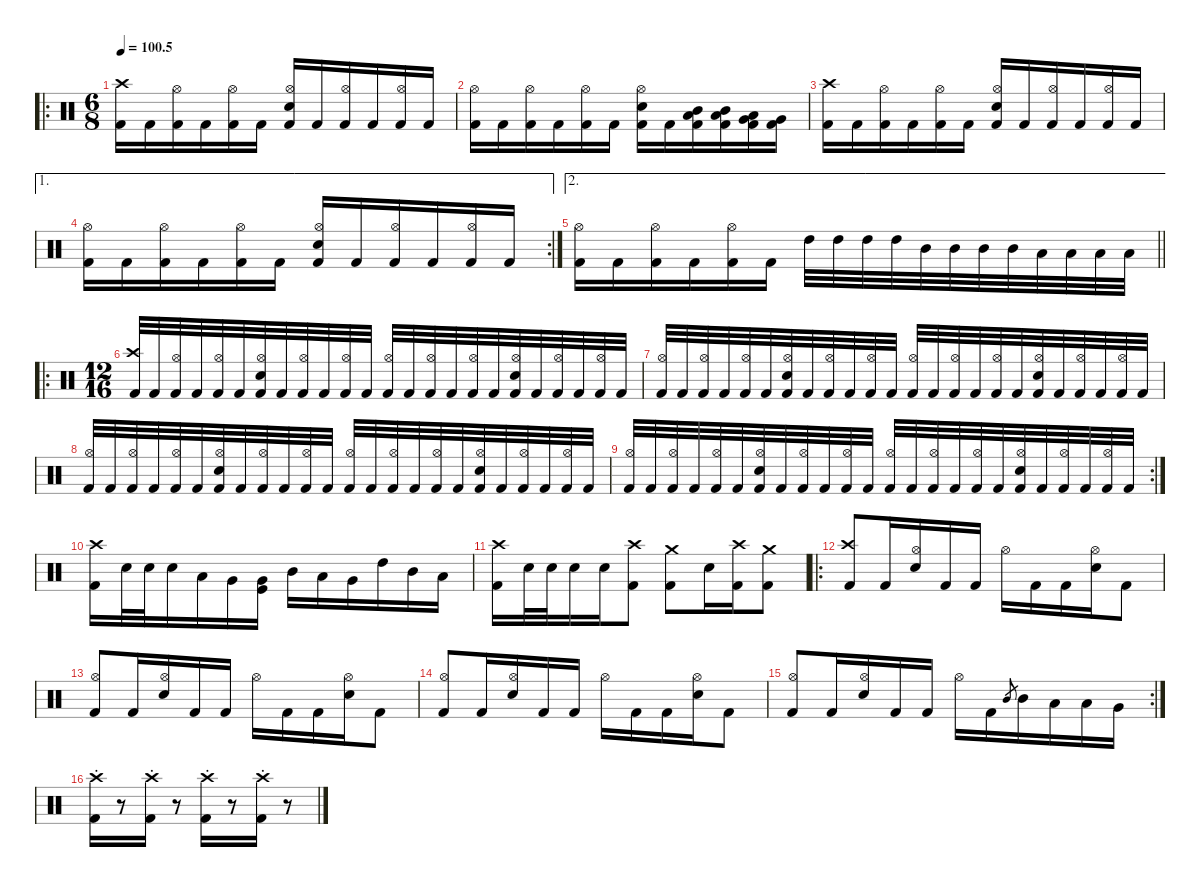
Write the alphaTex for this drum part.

\defaultSystemsLayout 4
\hideDynamics
\bracketExtendMode nobrackets
\singleTrackTrackNamePolicy hidden
\multiTrackTrackNamePolicy hidden
\firstSystemTrackNameMode fullname
\firstSystemTrackNameOrientation horizontal
\otherSystemsTrackNameOrientation horizontal
\track ("Drums" "drm.") {instrument percussion}
\staff {score}
\articulation defaults
\ro
\ts (6 8)
\beaming (8 3 3)
\tempo
100.5
\accidentals auto
\clef neutral
\ottava regular
\simile none
\ks c
("Crash high (hit)" "Kick (hit) 2").16{dy f beam Down} "Kick (hit) 2".16{beam Down} ("Hi-Hat (open)" "Kick (hit) 2").16{dy mp beam Down} "Kick (hit) 2".16{dy f beam Down} ("Hi-Hat (open)" "Kick (hit) 2").16{dy mp beam Down} "Kick (hit) 2".16{dy f beam Down} ("Hi-Hat (open)" "Snare (hit) 2" "Kick (hit) 2").16{dy mp beam Up} "Kick (hit) 2".16{dy f beam Up} ("Hi-Hat (open)" "Kick (hit) 2").16{dy mp beam Up} "Kick (hit) 2".16{dy f beam Up} ("Hi-Hat (open)" "Kick (hit) 2").16{dy mp beam Up} "Kick (hit) 2".16{dy f beam Up} |
("Hi-Hat (open)" "Kick (hit) 2").16{dy mp beam Down} "Kick (hit) 2".16{dy f beam Down} ("Hi-Hat (open)" "Kick (hit) 2").16{dy mp beam Down} "Kick (hit) 2".16{dy f beam Down} ("Hi-Hat (open)" "Kick (hit) 2").16{dy mp beam Down} "Kick (hit) 2".16{dy f beam Down} ("Hi-Hat (open)" "Snare (hit) 2" "Kick (hit) 2").16{dy mp beam Down} "Kick (hit) 2".16{dy f beam Down} ("Mid Tom (hit)" "Low Tom (hit)" "Kick (hit) 2").16{beam Down} ("Mid Tom (hit)" "Low Tom (hit)" "Kick (hit) 2").16{beam Down} ("Low Tom (hit)" "Very Low Tom (hit)" "Kick (hit) 2").16{beam Down} ("Very Low Tom (hit)" "Kick (hit) 2").16{beam Down} |
("Crash high (hit)" "Kick (hit) 2").16{beam Down} "Kick (hit) 2".16{beam Down} ("Hi-Hat (open)" "Kick (hit) 2").16{dy mp beam Down} "Kick (hit) 2".16{dy f beam Down} ("Hi-Hat (open)" "Kick (hit) 2").16{dy mp beam Down} "Kick (hit) 2".16{dy f beam Down} ("Hi-Hat (open)" "Snare (hit) 2" "Kick (hit) 2").16{dy mp beam Up} "Kick (hit) 2".16{dy f beam Up} ("Hi-Hat (open)" "Kick (hit) 2").16{dy mp beam Up} "Kick (hit) 2".16{dy f beam Up} ("Hi-Hat (open)" "Kick (hit) 2").16{dy mp beam Up} "Kick (hit) 2".16{dy f beam Up} |
\ae 1
\rc 2
("Hi-Hat (open)" "Kick (hit) 2").16{dy mp beam Down} "Kick (hit) 2".16{dy f beam Down} ("Hi-Hat (open)" "Kick (hit) 2").16{dy mp beam Down} "Kick (hit) 2".16{dy f beam Down} ("Hi-Hat (open)" "Kick (hit) 2").16{dy mp beam Down} "Kick (hit) 2".16{dy f beam Down} ("Hi-Hat (open)" "Snare (hit) 2" "Kick (hit) 2").16{dy mp beam Up} "Kick (hit) 2".16{dy f beam Up} ("Hi-Hat (open)" "Kick (hit) 2").16{dy mp beam Up} "Kick (hit) 2".16{dy f beam Up} ("Hi-Hat (open)" "Kick (hit) 2").16{dy mp beam Up} "Kick (hit) 2".16{dy f beam Up} |
\ae 2
\barLineRight lightlight
("Hi-Hat (open)" "Kick (hit) 2").16{dy mp beam Down} "Kick (hit) 2".16{dy f beam Down} ("Hi-Hat (open)" "Kick (hit) 2").16{dy mp beam Down} "Kick (hit) 2".16{dy f beam Down} ("Hi-Hat (open)" "Kick (hit) 2").16{dy mp beam Down} "Kick (hit) 2".16{dy f beam Down} "High Tom (hit)".32{beam Down} "High Tom (hit)".32{dy mf beam Down} "High Tom (hit)".32{dy f beam Down} "High Tom (hit)".32{dy mf beam Down} "Mid Tom (hit)".32{dy f beam Down} "Mid Tom (hit)".32{dy mf beam Down} "Mid Tom (hit)".32{dy f beam Down} "Mid Tom (hit)".32{dy mf beam Down} "Low Tom (hit)".32{dy f beam Down} "Low Tom (hit)".32{dy mf beam Down} "Low Tom (hit)".32{dy f beam Down} "Low Tom (hit)".32{dy mf beam Down} |
\ro
\ts (12 16)
\beaming (8 3 3)
("Crash high (hit)" "Kick (hit) 2").32{dy f beam Up} "Kick (hit) 2".32{beam Up} ("Hi-Hat (open)" "Kick (hit) 2").32{dy mp beam Up} "Kick (hit) 2".32{dy f beam Up} ("Hi-Hat (open)" "Kick (hit) 2").32{dy mp beam Up} "Kick (hit) 2".32{dy f beam Up} ("Hi-Hat (open)" "Snare (hit) 2" "Kick (hit) 2").32{dy mp beam Up} "Kick (hit) 2".32{dy f beam Up} ("Hi-Hat (open)" "Kick (hit) 2").32{dy mp beam Up} "Kick (hit) 2".32{dy f beam Up} ("Hi-Hat (open)" "Kick (hit) 2").32{dy mp beam Up} "Kick (hit) 2".32{dy f beam Up} ("Hi-Hat (open)" "Kick (hit) 2").32{dy mp beam Up} "Kick (hit) 2".32{dy f beam Up} ("Hi-Hat (open)" "Kick (hit) 2").32{dy mp beam Up} "Kick (hit) 2".32{dy f beam Up} ("Hi-Hat (open)" "Kick (hit) 2").32{dy mp beam Up} "Kick (hit) 2".32{dy f beam Up} ("Hi-Hat (open)" "Snare (hit) 2" "Kick (hit) 2").32{dy mp beam Up} "Kick (hit) 2".32{dy f beam Up} ("Hi-Hat (open)" "Kick (hit) 2").32{dy mp beam Up} "Kick (hit) 2".32{dy f beam Up} ("Hi-Hat (open)" "Kick (hit) 2").32{dy mp beam Up} "Kick (hit) 2".32{dy f beam Up} |
("Hi-Hat (open)" "Kick (hit) 2").32{dy mp beam Up} "Kick (hit) 2".32{dy f beam Up} ("Hi-Hat (open)" "Kick (hit) 2").32{dy mp beam Up} "Kick (hit) 2".32{dy f beam Up} ("Hi-Hat (open)" "Kick (hit) 2").32{dy mp beam Up} "Kick (hit) 2".32{dy f beam Up} ("Hi-Hat (open)" "Snare (hit) 2" "Kick (hit) 2").32{dy mp beam Up} "Kick (hit) 2".32{dy f beam Up} ("Hi-Hat (open)" "Kick (hit) 2").32{dy mp beam Up} "Kick (hit) 2".32{dy f beam Up} ("Hi-Hat (open)" "Kick (hit) 2").32{dy mp beam Up} "Kick (hit) 2".32{dy f beam Up} ("Hi-Hat (open)" "Kick (hit) 2").32{dy mp beam Up} "Kick (hit) 2".32{dy f beam Up} ("Hi-Hat (open)" "Kick (hit) 2").32{dy mp beam Up} "Kick (hit) 2".32{dy f beam Up} ("Hi-Hat (open)" "Kick (hit) 2").32{dy mp beam Up} "Kick (hit) 2".32{dy f beam Up} ("Hi-Hat (open)" "Snare (hit) 2" "Kick (hit) 2").32{dy mp beam Up} "Kick (hit) 2".32{dy f beam Up} ("Hi-Hat (open)" "Kick (hit) 2").32{dy mp beam Up} "Kick (hit) 2".32{dy f beam Up} ("Hi-Hat (open)" "Kick (hit) 2").32{dy mp beam Up} "Kick (hit) 2".32{dy f beam Up} |
("Hi-Hat (open)" "Kick (hit) 2").32{dy mp beam Up} "Kick (hit) 2".32{dy f beam Up} ("Hi-Hat (open)" "Kick (hit) 2").32{dy mp beam Up} "Kick (hit) 2".32{dy f beam Up} ("Hi-Hat (open)" "Kick (hit) 2").32{dy mp beam Up} "Kick (hit) 2".32{dy f beam Up} ("Hi-Hat (open)" "Snare (hit) 2" "Kick (hit) 2").32{dy mp beam Up} "Kick (hit) 2".32{dy f beam Up} ("Hi-Hat (open)" "Kick (hit) 2").32{dy mp beam Up} "Kick (hit) 2".32{dy f beam Up} ("Hi-Hat (open)" "Kick (hit) 2").32{dy mp beam Up} "Kick (hit) 2".32{dy f beam Up} ("Hi-Hat (open)" "Kick (hit) 2").32{dy mp beam Up} "Kick (hit) 2".32{dy f beam Up} ("Hi-Hat (open)" "Kick (hit) 2").32{dy mp beam Up} "Kick (hit) 2".32{dy f beam Up} ("Hi-Hat (open)" "Kick (hit) 2").32{dy mp beam Up} "Kick (hit) 2".32{dy f beam Up} ("Hi-Hat (open)" "Snare (hit) 2" "Kick (hit) 2").32{dy mp beam Up} "Kick (hit) 2".32{dy f beam Up} ("Hi-Hat (open)" "Kick (hit) 2").32{dy mp beam Up} "Kick (hit) 2".32{dy f beam Up} ("Hi-Hat (open)" "Kick (hit) 2").32{dy mp beam Up} "Kick (hit) 2".32{dy f beam Up} |
\rc 2
("Hi-Hat (open)" "Kick (hit) 2").32{dy mp beam Up} "Kick (hit) 2".32{dy f beam Up} ("Hi-Hat (open)" "Kick (hit) 2").32{dy mp beam Up} "Kick (hit) 2".32{dy f beam Up} ("Hi-Hat (open)" "Kick (hit) 2").32{dy mp beam Up} "Kick (hit) 2".32{dy f beam Up} ("Hi-Hat (open)" "Snare (hit) 2" "Kick (hit) 2").32{dy mp beam Up} "Kick (hit) 2".32{dy f beam Up} ("Hi-Hat (open)" "Kick (hit) 2").32{dy mp beam Up} "Kick (hit) 2".32{dy f beam Up} ("Hi-Hat (open)" "Kick (hit) 2").32{dy mp beam Up} "Kick (hit) 2".32{dy f beam Up} ("Hi-Hat (open)" "Kick (hit) 2").32{dy mp beam Up} "Kick (hit) 2".32{dy f beam Up} ("Hi-Hat (open)" "Kick (hit) 2").32{dy mp beam Up} "Kick (hit) 2".32{dy f beam Up} ("Hi-Hat (open)" "Kick (hit) 2").32{dy mp beam Up} "Kick (hit) 2".32{dy f beam Up} ("Hi-Hat (open)" "Snare (hit) 2" "Kick (hit) 2").32{dy mp beam Up} "Kick (hit) 2".32{dy f beam Up} ("Hi-Hat (open)" "Kick (hit) 2").32{dy mp beam Up} "Kick (hit) 2".32{dy f beam Up} ("Hi-Hat (open)" "Kick (hit) 2").32{dy mp beam Up} "Kick (hit) 2".32{dy f beam Up} |
("Crash high (hit)" "Kick (hit) 2").16{beam Down} "Snare (hit) 2".32{beam Down} "Snare (hit) 2".32{beam Down} "Snare (hit) 2".16{beam Down} "Low Tom (hit)".16{beam Down} "Very Low Tom (hit)".16{beam Down} ("Very Low Tom (hit)" "Kick (hit)").16{beam Down} "Mid Tom (hit)".16{beam Down} "Low Tom (hit)".16{beam Down} "Very Low Tom (hit)".16{beam Down} "High Tom (hit)".16{beam Down} "Mid Tom (hit)".16{beam Down} "Low Tom (hit)".16{beam Down} |
("Crash high (hit)" "Kick (hit) 2").16{beam Down} "Snare (hit) 2".32{beam Down} "Snare (hit) 2".32{beam Down} "Snare (hit) 2".16{beam Down} "Snare (hit) 2".16{beam Down} ("Crash high (hit)" "Kick (hit) 2").8{beam Down} ("Crash medium (hit)" "Kick (hit) 2").8{beam Down} "Snare (hit) 2".16{beam Down} ("Crash high (hit)" "Kick (hit) 2").16{beam Down} ("Crash medium (hit)" "Kick (hit) 2").8{beam Down} |
\ro
("Crash high (hit)" "Kick (hit) 2").8{beam Up} "Kick (hit) 2".16{dy ff beam Up} ("Hi-Hat (open)" "Snare (hit) 2").16{dy f beam Up} "Kick (hit) 2".16{dy ff beam Up} "Kick (hit) 2".16{beam Up} "Hi-Hat (open)".16{dy f beam Down} "Kick (hit) 2".16{dy ff beam Down} "Kick (hit) 2".16{beam Down} ("Hi-Hat (open)" "Snare (hit) 2").16{dy f beam Down} "Kick (hit) 2".8{dy ff beam Down} |
("Hi-Hat (open)" "Kick (hit) 2").8{dy f beam Up} "Kick (hit) 2".16{dy ff beam Up} ("Hi-Hat (open)" "Snare (hit) 2").16{dy f beam Up} "Kick (hit) 2".16{dy ff beam Up} "Kick (hit) 2".16{beam Up} "Hi-Hat (open)".16{dy f beam Down} "Kick (hit) 2".16{dy ff beam Down} "Kick (hit) 2".16{beam Down} ("Hi-Hat (open)" "Snare (hit) 2").16{dy f beam Down} "Kick (hit) 2".8{dy ff beam Down} |
("Hi-Hat (open)" "Kick (hit) 2").8{dy f beam Up} "Kick (hit) 2".16{dy ff beam Up} ("Hi-Hat (open)" "Snare (hit) 2").16{dy f beam Up} "Kick (hit) 2".16{dy ff beam Up} "Kick (hit) 2".16{beam Up} "Hi-Hat (open)".16{dy f beam Down} "Kick (hit) 2".16{dy ff beam Down} "Kick (hit) 2".16{beam Down} ("Hi-Hat (open)" "Snare (hit) 2").16{dy f beam Down} "Kick (hit) 2".8{dy ff beam Down} |
\rc 2
("Hi-Hat (open)" "Kick (hit) 2").8{dy f beam Up} "Kick (hit) 2".16{dy ff beam Up} ("Hi-Hat (open)" "Snare (hit) 2").16{dy f beam Up} "Kick (hit) 2".16{dy ff beam Up} "Kick (hit) 2".16{beam Up} "Hi-Hat (open)".16{dy f beam Down} "Kick (hit) 2".16{dy ff beam Down} "Mid Tom (hit)".8{gr dy mf beam Up} "Mid Tom (hit)".16{dy ff beam Down} "Low Tom (hit)".16{beam Down} "Low Tom (hit)".16{dy f beam Down} "Very Low Tom (hit)".16{dy ff beam Down} |
("Crash high (hit)"{st} "Kick (hit) 2").16{dy f beam Down} r.8{beam Down} ("Crash high (hit)"{st} "Kick (hit) 2").16{beam Down} r.8{beam Down} ("Crash high (hit)"{st} "Kick (hit) 2").16{beam Down} r.8{beam Down} ("Crash high (hit)"{st} "Kick (hit) 2").16{beam Down} r.8{beam Down}
